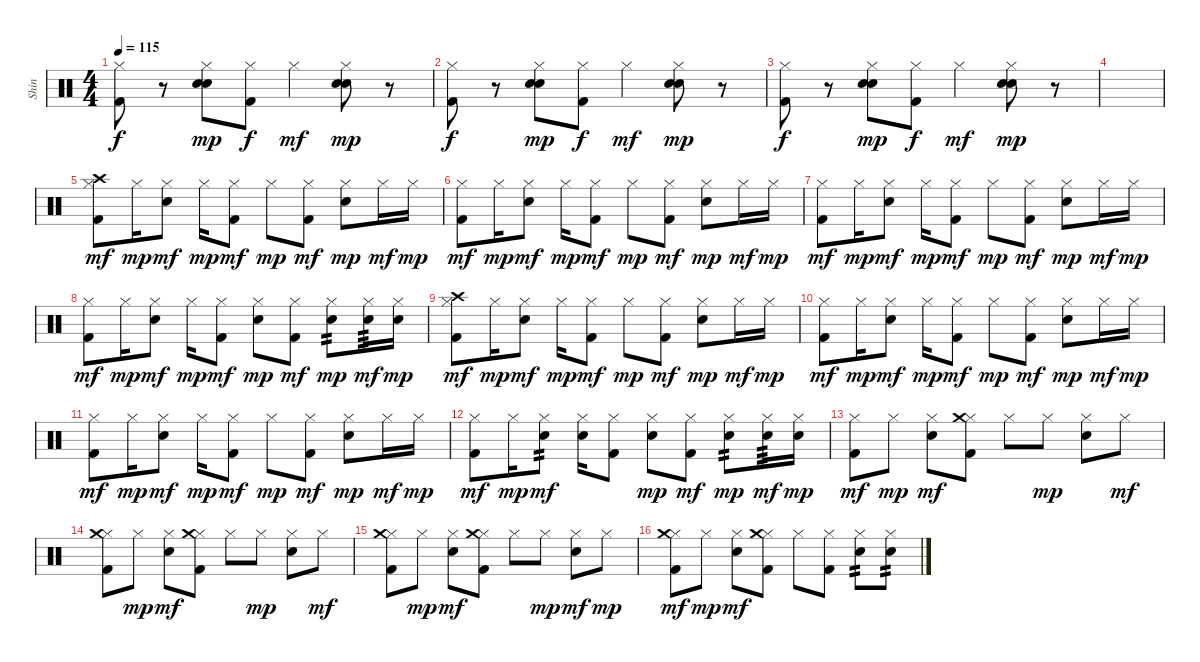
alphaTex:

\track ("Shin" "Shin") {instrument percussion}
\staff {score}
\articulation defaults
\ts (4 4)
\tempo 115
\clef neutral
\ks c
("Kick (hit) 2" "Hi-Hat (closed)").8{dy f} r.8 ("Hi-Hat (closed)" "Snare (hit) 2" "Hand Clap (hit)").8{dy mp} ("Kick (hit) 2" "Hi-Hat (closed)").8{dy f} "Hi-Hat (closed)".4{dy mf} ("Hi-Hat (closed)" "Snare (hit) 2" "Hand Clap (hit)").8{dy mp} r.8 |
("Kick (hit) 2" "Hi-Hat (closed)").8{dy f} r.8 ("Hi-Hat (closed)" "Snare (hit) 2" "Hand Clap (hit)").8{dy mp} ("Kick (hit) 2" "Hi-Hat (closed)").8{dy f} "Hi-Hat (closed)".4{dy mf} ("Hi-Hat (closed)" "Snare (hit) 2" "Hand Clap (hit)").8{dy mp} r.8 |
("Kick (hit) 2" "Hi-Hat (closed)").8{dy f} r.8 ("Hi-Hat (closed)" "Snare (hit) 2" "Hand Clap (hit)").8{dy mp} ("Kick (hit) 2" "Hi-Hat (closed)").8{dy f} "Hi-Hat (closed)".4{dy mf} ("Hi-Hat (closed)" "Snare (hit) 2" "Hand Clap (hit)").8{dy mp} r.8 |
|
("Hi-Hat (closed)" "Crash high (hit)" "Kick (hit) 2").8{dy mf} "Hi-Hat (closed)".16{dy mp} ("Hi-Hat (closed)" "Snare (hit) 2").8{dy mf} "Hi-Hat (closed)".16{dy mp} ("Hi-Hat (closed)" "Kick (hit) 2").8{dy mf} "Hi-Hat (closed)".8{dy mp} ("Hi-Hat (closed)" "Kick (hit) 2").8{dy mf} ("Hi-Hat (closed)" "Snare (hit) 2").8{dy mp} "Hi-Hat (closed)".16{dy mf} "Hi-Hat (closed)".16{dy mp} |
("Hi-Hat (closed)" "Kick (hit) 2").8{dy mf} "Hi-Hat (closed)".16{dy mp} ("Hi-Hat (closed)" "Snare (hit) 2").8{dy mf} "Hi-Hat (closed)".16{dy mp} ("Hi-Hat (closed)" "Kick (hit) 2").8{dy mf} "Hi-Hat (closed)".8{dy mp} ("Hi-Hat (closed)" "Kick (hit) 2").8{dy mf} ("Hi-Hat (closed)" "Snare (hit) 2").8{dy mp} "Hi-Hat (closed)".16{dy mf} "Hi-Hat (closed)".16{dy mp} |
("Hi-Hat (closed)" "Kick (hit) 2").8{dy mf} "Hi-Hat (closed)".16{dy mp} ("Hi-Hat (closed)" "Snare (hit) 2").8{dy mf} "Hi-Hat (closed)".16{dy mp} ("Hi-Hat (closed)" "Kick (hit) 2").8{dy mf} "Hi-Hat (closed)".8{dy mp} ("Hi-Hat (closed)" "Kick (hit) 2").8{dy mf} ("Hi-Hat (closed)" "Snare (hit) 2").8{dy mp} "Hi-Hat (closed)".16{dy mf} "Hi-Hat (closed)".16{dy mp} |
("Hi-Hat (closed)" "Kick (hit) 2").8{dy mf} "Hi-Hat (closed)".16{dy mp} ("Hi-Hat (closed)" "Snare (hit) 2").8{dy mf} "Hi-Hat (closed)".16{dy mp} ("Hi-Hat (closed)" "Kick (hit) 2").8{dy mf} ("Hi-Hat (closed)" "Snare (hit) 2").8{dy mp} ("Hi-Hat (closed)" "Kick (hit) 2").8{dy mf} ("Hi-Hat (closed)" "Snare (hit) 2").8{tp 2 dy mp} ("Hi-Hat (closed)" "Snare (hit) 2").16{tp 3 dy mf} ("Hi-Hat (closed)" "Snare (hit) 2").16{dy mp} |
("Hi-Hat (closed)" "Crash high (hit)" "Kick (hit) 2").8{dy mf} "Hi-Hat (closed)".16{dy mp} ("Hi-Hat (closed)" "Snare (hit) 2").8{dy mf} "Hi-Hat (closed)".16{dy mp} ("Hi-Hat (closed)" "Kick (hit) 2").8{dy mf} "Hi-Hat (closed)".8{dy mp} ("Hi-Hat (closed)" "Kick (hit) 2").8{dy mf} ("Hi-Hat (closed)" "Snare (hit) 2").8{dy mp} "Hi-Hat (closed)".16{dy mf} "Hi-Hat (closed)".16{dy mp} |
("Hi-Hat (closed)" "Kick (hit) 2").8{dy mf} "Hi-Hat (closed)".16{dy mp} ("Hi-Hat (closed)" "Snare (hit) 2").8{dy mf} "Hi-Hat (closed)".16{dy mp} ("Hi-Hat (closed)" "Kick (hit) 2").8{dy mf} "Hi-Hat (closed)".8{dy mp} ("Hi-Hat (closed)" "Kick (hit) 2").8{dy mf} ("Hi-Hat (closed)" "Snare (hit) 2").8{dy mp} "Hi-Hat (closed)".16{dy mf} "Hi-Hat (closed)".16{dy mp} |
("Hi-Hat (closed)" "Kick (hit) 2").8{dy mf} "Hi-Hat (closed)".16{dy mp} ("Hi-Hat (closed)" "Snare (hit) 2").8{dy mf} "Hi-Hat (closed)".16{dy mp} ("Hi-Hat (closed)" "Kick (hit) 2").8{dy mf} "Hi-Hat (closed)".8{dy mp} ("Hi-Hat (closed)" "Kick (hit) 2").8{dy mf} ("Hi-Hat (closed)" "Snare (hit) 2").8{dy mp} "Hi-Hat (closed)".16{dy mf} "Hi-Hat (closed)".16{dy mp} |
("Hi-Hat (closed)" "Kick (hit) 2").8{dy mf} "Hi-Hat (closed)".16{dy mp} ("Hi-Hat (closed)" "Snare (hit) 2").8{tp 2 dy mf} ("Hi-Hat (closed)" "Snare (hit) 2").16 ("Hi-Hat (closed)" "Kick (hit) 2").8 ("Hi-Hat (closed)" "Snare (hit) 2").8{dy mp} ("Hi-Hat (closed)" "Kick (hit) 2").8{dy mf} ("Hi-Hat (closed)" "Snare (hit) 2").8{tp 2 dy mp} ("Hi-Hat (closed)" "Snare (hit) 2").16{tp 3 dy mf} ("Hi-Hat (closed)" "Snare (hit) 2").16{dy mp} |
("Hi-Hat (closed)" "Kick (hit) 2").8{dy mf} "Hi-Hat (closed)".8{dy mp} ("Hi-Hat (closed)" "Snare (hit) 2").8{dy mf} ("Hi-Hat (closed)" "Crash medium (hit)" "Kick (hit) 2").8 "Hi-Hat (closed)".8 "Hi-Hat (closed)".8{dy mp} ("Hi-Hat (closed)" "Snare (hit) 2").8 "Hi-Hat (closed)".8{dy mf} |
("Hi-Hat (closed)" "Crash medium (hit)" "Kick (hit) 2").8 "Hi-Hat (closed)".8{dy mp} ("Hi-Hat (closed)" "Snare (hit) 2").8{dy mf} ("Hi-Hat (closed)" "Crash medium (hit)" "Kick (hit) 2").8 "Hi-Hat (closed)".8 "Hi-Hat (closed)".8{dy mp} ("Hi-Hat (closed)" "Snare (hit) 2").8 "Hi-Hat (closed)".8{dy mf} |
("Hi-Hat (closed)" "Crash medium (hit)" "Kick (hit) 2").8 "Hi-Hat (closed)".8{dy mp} ("Hi-Hat (closed)" "Snare (hit) 2").8{dy mf} ("Hi-Hat (closed)" "Crash medium (hit)" "Kick (hit) 2").8 "Hi-Hat (closed)".8 "Hi-Hat (closed)".8{dy mp} ("Hi-Hat (closed)" "Snare (hit) 2").8{dy mf} "Hi-Hat (closed)".8{dy mp} |
("Hi-Hat (closed)" "Crash medium (hit)" "Kick (hit) 2").8{dy mf} "Hi-Hat (closed)".8{dy mp} ("Hi-Hat (closed)" "Snare (hit) 2").8{dy mf} ("Hi-Hat (closed)" "Crash medium (hit)" "Kick (hit) 2").8 "Hi-Hat (closed)".8 ("Hi-Hat (closed)" "Kick (hit) 2").8 ("Hi-Hat (closed)" "Snare (hit) 2").8{tp 2} ("Hi-Hat (closed)" "Snare (hit) 2").8{tp 2}
